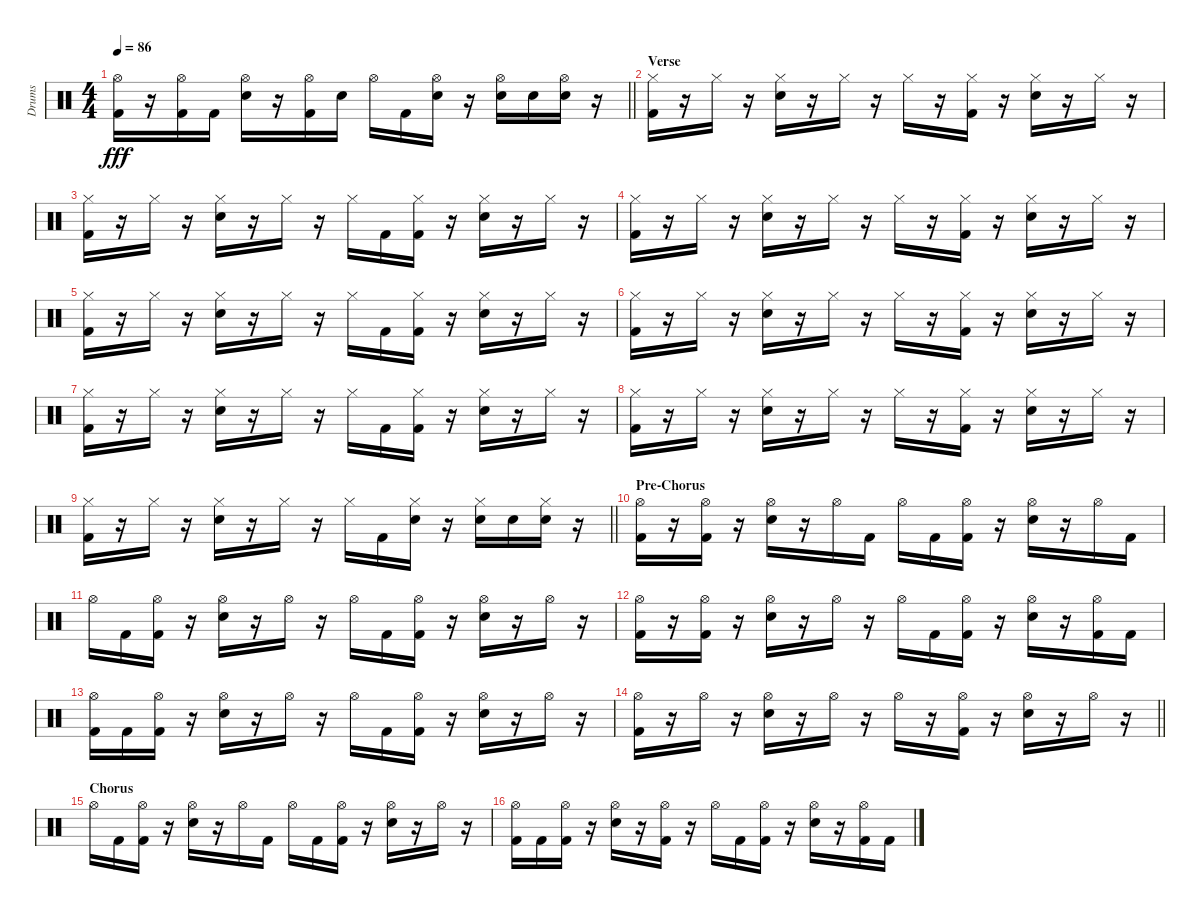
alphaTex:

\track ("Drums" "Drums") {instrument percussion}
\staff {score}
\articulation defaults
\ts (4 4)
\tempo 86
\clef neutral
\barLineRight lightlight
\ks c
("Hi-Hat (open)" "Kick (hit) 2").16{dy fff} r.16 ("Hi-Hat (open)" "Kick (hit) 2").16 "Kick (hit) 2".16 ("Hi-Hat (open)" "Electric Snare (hit)").16 r.16 ("Hi-Hat (open)" "Kick (hit) 2").16 "Electric Snare (hit)".16 "Hi-Hat (open)".16 "Kick (hit) 2".16 ("Hi-Hat (open)" "Electric Snare (hit)").16 r.16 ("Hi-Hat (open)" "Electric Snare (hit)").16 "Electric Snare (hit)".16 ("Hi-Hat (open)" "Electric Snare (hit)").16 r.16 |
\section ("" "Verse")
("Hi-Hat (closed)" "Kick (hit) 2").16 r.16 "Hi-Hat (closed)".16 r.16 ("Hi-Hat (closed)" "Electric Snare (hit)").16 r.16 "Hi-Hat (closed)".16 r.16 "Hi-Hat (closed)".16 r.16 ("Hi-Hat (closed)" "Kick (hit) 2").16 r.16 ("Hi-Hat (closed)" "Electric Snare (hit)").16 r.16 "Hi-Hat (closed)".16 r.16 |
("Hi-Hat (closed)" "Kick (hit) 2").16 r.16 "Hi-Hat (closed)".16 r.16 ("Hi-Hat (closed)" "Electric Snare (hit)").16 r.16 "Hi-Hat (closed)".16 r.16 "Hi-Hat (closed)".16 "Kick (hit) 2".16 ("Hi-Hat (closed)" "Kick (hit) 2").16 r.16 ("Hi-Hat (closed)" "Electric Snare (hit)").16 r.16 "Hi-Hat (closed)".16 r.16 |
("Hi-Hat (closed)" "Kick (hit) 2").16 r.16 "Hi-Hat (closed)".16 r.16 ("Hi-Hat (closed)" "Electric Snare (hit)").16 r.16 "Hi-Hat (closed)".16 r.16 "Hi-Hat (closed)".16 r.16 ("Hi-Hat (closed)" "Kick (hit) 2").16 r.16 ("Hi-Hat (closed)" "Electric Snare (hit)").16 r.16 "Hi-Hat (closed)".16 r.16 |
("Hi-Hat (closed)" "Kick (hit) 2").16 r.16 "Hi-Hat (closed)".16 r.16 ("Hi-Hat (closed)" "Electric Snare (hit)").16 r.16 "Hi-Hat (closed)".16 r.16 "Hi-Hat (closed)".16 "Kick (hit) 2".16 ("Hi-Hat (closed)" "Kick (hit) 2").16 r.16 ("Hi-Hat (closed)" "Electric Snare (hit)").16 r.16 "Hi-Hat (closed)".16 r.16 |
("Hi-Hat (closed)" "Kick (hit) 2").16 r.16 "Hi-Hat (closed)".16 r.16 ("Hi-Hat (closed)" "Electric Snare (hit)").16 r.16 "Hi-Hat (closed)".16 r.16 "Hi-Hat (closed)".16 r.16 ("Hi-Hat (closed)" "Kick (hit) 2").16 r.16 ("Hi-Hat (closed)" "Electric Snare (hit)").16 r.16 "Hi-Hat (closed)".16 r.16 |
("Hi-Hat (closed)" "Kick (hit) 2").16 r.16 "Hi-Hat (closed)".16 r.16 ("Hi-Hat (closed)" "Electric Snare (hit)").16 r.16 "Hi-Hat (closed)".16 r.16 "Hi-Hat (closed)".16 "Kick (hit) 2".16 ("Hi-Hat (closed)" "Kick (hit) 2").16 r.16 ("Hi-Hat (closed)" "Electric Snare (hit)").16 r.16 "Hi-Hat (closed)".16 r.16 |
("Hi-Hat (closed)" "Kick (hit) 2").16 r.16 "Hi-Hat (closed)".16 r.16 ("Hi-Hat (closed)" "Electric Snare (hit)").16 r.16 "Hi-Hat (closed)".16 r.16 "Hi-Hat (closed)".16 r.16 ("Hi-Hat (closed)" "Kick (hit) 2").16 r.16 ("Hi-Hat (closed)" "Electric Snare (hit)").16 r.16 "Hi-Hat (closed)".16 r.16 |
\barLineRight lightlight
("Hi-Hat (closed)" "Kick (hit) 2").16 r.16 "Hi-Hat (closed)".16 r.16 ("Hi-Hat (closed)" "Electric Snare (hit)").16 r.16 "Hi-Hat (closed)".16 r.16 "Hi-Hat (closed)".16 "Kick (hit) 2".16 ("Hi-Hat (closed)" "Electric Snare (hit)").16 r.16 ("Hi-Hat (closed)" "Electric Snare (hit)").16 "Electric Snare (hit)".16 ("Hi-Hat (closed)" "Electric Snare (hit)").16 r.16 |
\section ("" "Pre-Chorus")
("Hi-Hat (open)" "Kick (hit) 2").16 r.16 ("Hi-Hat (open)" "Kick (hit) 2").16 r.16 ("Hi-Hat (open)" "Electric Snare (hit)").16 r.16 "Hi-Hat (open)".16 "Kick (hit) 2".16 "Hi-Hat (open)".16 "Kick (hit) 2".16 ("Hi-Hat (open)" "Kick (hit) 2").16 r.16 ("Hi-Hat (open)" "Electric Snare (hit)").16 r.16 "Hi-Hat (open)".16 "Kick (hit) 2".16 |
"Hi-Hat (open)".16 "Kick (hit) 2".16 ("Hi-Hat (open)" "Kick (hit) 2").16 r.16 ("Hi-Hat (open)" "Electric Snare (hit)").16 r.16 "Hi-Hat (open)".16 r.16 "Hi-Hat (open)".16 "Kick (hit) 2".16 ("Hi-Hat (open)" "Kick (hit) 2").16 r.16 ("Hi-Hat (open)" "Electric Snare (hit)").16 r.16 "Hi-Hat (open)".16 r.16 |
("Hi-Hat (open)" "Kick (hit) 2").16 r.16 ("Hi-Hat (open)" "Kick (hit) 2").16 r.16 ("Hi-Hat (open)" "Electric Snare (hit)").16 r.16 "Hi-Hat (open)".16 r.16 "Hi-Hat (open)".16 "Kick (hit) 2".16 ("Hi-Hat (open)" "Kick (hit) 2").16 r.16 ("Hi-Hat (open)" "Electric Snare (hit)").16 r.16 ("Hi-Hat (open)" "Kick (hit) 2").16 "Kick (hit) 2".16 |
("Hi-Hat (open)" "Kick (hit) 2").16 "Kick (hit) 2".16 ("Hi-Hat (open)" "Kick (hit) 2").16 r.16 ("Hi-Hat (open)" "Electric Snare (hit)").16 r.16 "Hi-Hat (open)".16 r.16 "Hi-Hat (open)".16 "Kick (hit) 2".16 ("Hi-Hat (open)" "Kick (hit) 2").16 r.16 ("Hi-Hat (open)" "Electric Snare (hit)").16 r.16 "Hi-Hat (open)".16 r.16 |
\barLineRight lightlight
("Hi-Hat (open)" "Kick (hit) 2").16 r.16 "Hi-Hat (open)".16 r.16 ("Hi-Hat (open)" "Electric Snare (hit)").16 r.16 "Hi-Hat (open)".16 r.16 "Hi-Hat (open)".16 r.16 ("Hi-Hat (open)" "Kick (hit) 2").16 r.16 ("Hi-Hat (open)" "Electric Snare (hit)").16 r.16 "Hi-Hat (open)".16 r.16 |
\section ("" "Chorus")
"Hi-Hat (open)".16 "Kick (hit) 2".16 ("Hi-Hat (open)" "Kick (hit) 2").16 r.16 ("Hi-Hat (open)" "Electric Snare (hit)").16 r.16 "Hi-Hat (open)".16 "Kick (hit) 2".16 "Hi-Hat (open)".16 "Kick (hit) 2".16 ("Hi-Hat (open)" "Kick (hit) 2").16 r.16 ("Hi-Hat (open)" "Electric Snare (hit)").16 r.16 "Hi-Hat (open)".16 r.16 |
("Hi-Hat (open)" "Kick (hit) 2").16 "Kick (hit) 2".16 ("Hi-Hat (open)" "Kick (hit) 2").16 r.16 ("Hi-Hat (open)" "Electric Snare (hit)").16 r.16 ("Hi-Hat (open)" "Kick (hit) 2").16 r.16 "Hi-Hat (open)".16 "Kick (hit) 2".16 ("Hi-Hat (open)" "Kick (hit) 2").16 r.16 ("Hi-Hat (open)" "Electric Snare (hit)").16 r.16 ("Hi-Hat (open)" "Kick (hit) 2").16 "Kick (hit) 2".16
